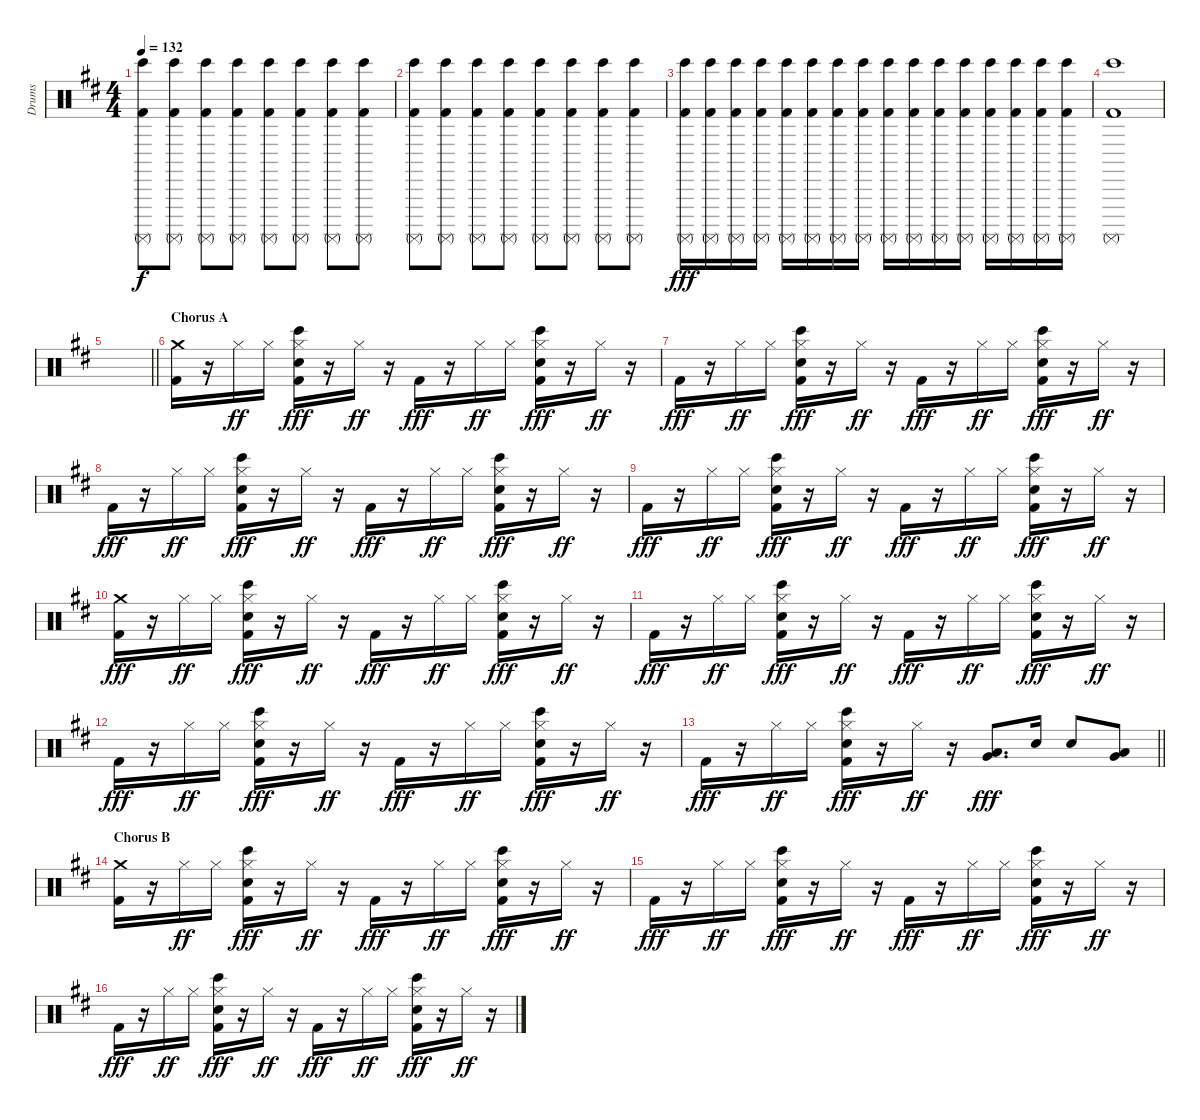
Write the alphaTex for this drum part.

\track ("Drums" "Drums") {instrument percussion}
\staff {score}
\articulation defaults
\ts (4 4)
\tempo 132
\clef neutral
\ks d
("Bongo High (hit)" "Surdo (mute)" "Kick (hit) 2").8{dy f} ("Bongo High (hit)" "Surdo (mute)" "Kick (hit) 2").8 ("Bongo High (hit)" "Surdo (mute)" "Kick (hit) 2").8 ("Bongo High (hit)" "Surdo (mute)" "Kick (hit) 2").8 ("Bongo High (hit)" "Surdo (mute)" "Kick (hit) 2").8 ("Bongo High (hit)" "Surdo (mute)" "Kick (hit) 2").8 ("Bongo High (hit)" "Surdo (mute)" "Kick (hit) 2").8 ("Bongo High (hit)" "Surdo (mute)" "Kick (hit) 2").8 |
("Bongo High (hit)" "Surdo (mute)" "Kick (hit) 2").8 ("Bongo High (hit)" "Surdo (mute)" "Kick (hit) 2").8 ("Bongo High (hit)" "Surdo (mute)" "Kick (hit) 2").8 ("Bongo High (hit)" "Surdo (mute)" "Kick (hit) 2").8 ("Bongo High (hit)" "Surdo (mute)" "Kick (hit) 2").8 ("Bongo High (hit)" "Surdo (mute)" "Kick (hit) 2").8 ("Bongo High (hit)" "Surdo (mute)" "Kick (hit) 2").8 ("Bongo High (hit)" "Surdo (mute)" "Kick (hit) 2").8 |
("Bongo High (hit)" "Surdo (mute)" "Kick (hit) 2").16{dy fff} ("Bongo High (hit)" "Surdo (mute)" "Kick (hit) 2").16 ("Bongo High (hit)" "Surdo (mute)" "Kick (hit) 2").16 ("Bongo High (hit)" "Surdo (mute)" "Kick (hit) 2").16 ("Bongo High (hit)" "Surdo (mute)" "Kick (hit) 2").16 ("Bongo High (hit)" "Surdo (mute)" "Kick (hit) 2").16 ("Bongo High (hit)" "Surdo (mute)" "Kick (hit) 2").16 ("Bongo High (hit)" "Surdo (mute)" "Kick (hit) 2").16 ("Bongo High (hit)" "Surdo (mute)" "Kick (hit) 2").16 ("Bongo High (hit)" "Surdo (mute)" "Kick (hit) 2").16 ("Bongo High (hit)" "Surdo (mute)" "Kick (hit) 2").16 ("Bongo High (hit)" "Surdo (mute)" "Kick (hit) 2").16 ("Bongo High (hit)" "Surdo (mute)" "Kick (hit) 2").16 ("Bongo High (hit)" "Surdo (mute)" "Kick (hit) 2").16 ("Bongo High (hit)" "Surdo (mute)" "Kick (hit) 2").16 ("Bongo High (hit)" "Surdo (mute)" "Kick (hit) 2").16 |
("Bongo High (hit)" "Surdo (mute)" "Kick (hit) 2").1 |
\barLineRight lightlight
|
\section ("" "Chorus A")
("Crash medium (hit)" "Kick (hit) 2").16 r.16 "Hi-Hat (closed)".16{dy ff} "Hi-Hat (closed)".16 ("Hi-Hat (closed)" "Electric Snare (hit)" "Bongo High (hit)" "Kick (hit) 2").16{dy fff} r.16 "Hi-Hat (closed)".16{dy ff} r.16 "Kick (hit) 2".16{dy fff} r.16 "Hi-Hat (closed)".16{dy ff} "Hi-Hat (closed)".16 ("Hi-Hat (closed)" "Electric Snare (hit)" "Bongo High (hit)" "Kick (hit) 2").16{dy fff} r.16 "Hi-Hat (closed)".16{dy ff} r.16 |
"Kick (hit) 2".16{dy fff} r.16 "Hi-Hat (closed)".16{dy ff} "Hi-Hat (closed)".16 ("Hi-Hat (closed)" "Electric Snare (hit)" "Bongo High (hit)" "Kick (hit) 2").16{dy fff} r.16 "Hi-Hat (closed)".16{dy ff} r.16 "Kick (hit) 2".16{dy fff} r.16 "Hi-Hat (closed)".16{dy ff} "Hi-Hat (closed)".16 ("Hi-Hat (closed)" "Electric Snare (hit)" "Bongo High (hit)" "Kick (hit) 2").16{dy fff} r.16 "Hi-Hat (closed)".16{dy ff} r.16 |
"Kick (hit) 2".16{dy fff} r.16 "Hi-Hat (closed)".16{dy ff} "Hi-Hat (closed)".16 ("Hi-Hat (closed)" "Electric Snare (hit)" "Bongo High (hit)" "Kick (hit) 2").16{dy fff} r.16 "Hi-Hat (closed)".16{dy ff} r.16 "Kick (hit) 2".16{dy fff} r.16 "Hi-Hat (closed)".16{dy ff} "Hi-Hat (closed)".16 ("Hi-Hat (closed)" "Electric Snare (hit)" "Bongo High (hit)" "Kick (hit) 2").16{dy fff} r.16 "Hi-Hat (closed)".16{dy ff} r.16 |
"Kick (hit) 2".16{dy fff} r.16 "Hi-Hat (closed)".16{dy ff} "Hi-Hat (closed)".16 ("Hi-Hat (closed)" "Electric Snare (hit)" "Bongo High (hit)" "Kick (hit) 2").16{dy fff} r.16 "Hi-Hat (closed)".16{dy ff} r.16 "Kick (hit) 2".16{dy fff} r.16 "Hi-Hat (closed)".16{dy ff} "Hi-Hat (closed)".16 ("Hi-Hat (closed)" "Electric Snare (hit)" "Bongo High (hit)" "Kick (hit) 2").16{dy fff} r.16 "Hi-Hat (closed)".16{dy ff} r.16 |
("Crash medium (hit)" "Kick (hit) 2").16{dy fff} r.16 "Hi-Hat (closed)".16{dy ff} "Hi-Hat (closed)".16 ("Hi-Hat (closed)" "Electric Snare (hit)" "Bongo High (hit)" "Kick (hit) 2").16{dy fff} r.16 "Hi-Hat (closed)".16{dy ff} r.16 "Kick (hit) 2".16{dy fff} r.16 "Hi-Hat (closed)".16{dy ff} "Hi-Hat (closed)".16 ("Hi-Hat (closed)" "Electric Snare (hit)" "Bongo High (hit)" "Kick (hit) 2").16{dy fff} r.16 "Hi-Hat (closed)".16{dy ff} r.16 |
"Kick (hit) 2".16{dy fff} r.16 "Hi-Hat (closed)".16{dy ff} "Hi-Hat (closed)".16 ("Hi-Hat (closed)" "Electric Snare (hit)" "Bongo High (hit)" "Kick (hit) 2").16{dy fff} r.16 "Hi-Hat (closed)".16{dy ff} r.16 "Kick (hit) 2".16{dy fff} r.16 "Hi-Hat (closed)".16{dy ff} "Hi-Hat (closed)".16 ("Hi-Hat (closed)" "Electric Snare (hit)" "Bongo High (hit)" "Kick (hit) 2").16{dy fff} r.16 "Hi-Hat (closed)".16{dy ff} r.16 |
"Kick (hit) 2".16{dy fff} r.16 "Hi-Hat (closed)".16{dy ff} "Hi-Hat (closed)".16 ("Hi-Hat (closed)" "Electric Snare (hit)" "Bongo High (hit)" "Kick (hit) 2").16{dy fff} r.16 "Hi-Hat (closed)".16{dy ff} r.16 "Kick (hit) 2".16{dy fff} r.16 "Hi-Hat (closed)".16{dy ff} "Hi-Hat (closed)".16 ("Hi-Hat (closed)" "Electric Snare (hit)" "Bongo High (hit)" "Kick (hit) 2").16{dy fff} r.16 "Hi-Hat (closed)".16{dy ff} r.16 |
\barLineRight lightlight "Kick (hit) 2".16{dy fff}
r.16 "Hi-Hat (closed)".16{dy ff} "Hi-Hat (closed)".16 ("Hi-Hat (closed)" "Electric Snare (hit)" "Bongo High (hit)" "Kick (hit) 2").16{dy fff} r.16 "Hi-Hat (closed)".16{dy ff} r.16 ("Very Low Tom (hit)" "Low Floor Tom (hit)").8{d dy fff} "Electric Snare (hit)".16 "Electric Snare (hit)".8 ("Very Low Tom (hit)" "Low Floor Tom (hit)").8 |
\section ("" "Chorus B")
("Crash medium (hit)" "Kick (hit) 2").16 r.16 "Hi-Hat (closed)".16{dy ff} "Hi-Hat (closed)".16 ("Hi-Hat (closed)" "Electric Snare (hit)" "Bongo High (hit)" "Kick (hit) 2").16{dy fff} r.16 "Hi-Hat (closed)".16{dy ff} r.16 "Kick (hit) 2".16{dy fff} r.16 "Hi-Hat (closed)".16{dy ff} "Hi-Hat (closed)".16 ("Hi-Hat (closed)" "Electric Snare (hit)" "Bongo High (hit)" "Kick (hit) 2").16{dy fff} r.16 "Hi-Hat (closed)".16{dy ff} r.16 |
"Kick (hit) 2".16{dy fff} r.16 "Hi-Hat (closed)".16{dy ff} "Hi-Hat (closed)".16 ("Hi-Hat (closed)" "Electric Snare (hit)" "Bongo High (hit)" "Kick (hit) 2").16{dy fff} r.16 "Hi-Hat (closed)".16{dy ff} r.16 "Kick (hit) 2".16{dy fff} r.16 "Hi-Hat (closed)".16{dy ff} "Hi-Hat (closed)".16 ("Hi-Hat (closed)" "Electric Snare (hit)" "Bongo High (hit)" "Kick (hit) 2").16{dy fff} r.16 "Hi-Hat (closed)".16{dy ff} r.16 |
"Kick (hit) 2".16{dy fff} r.16 "Hi-Hat (closed)".16{dy ff} "Hi-Hat (closed)".16 ("Hi-Hat (closed)" "Electric Snare (hit)" "Bongo High (hit)" "Kick (hit) 2").16{dy fff} r.16 "Hi-Hat (closed)".16{dy ff} r.16 "Kick (hit) 2".16{dy fff} r.16 "Hi-Hat (closed)".16{dy ff} "Hi-Hat (closed)".16 ("Hi-Hat (closed)" "Electric Snare (hit)" "Bongo High (hit)" "Kick (hit) 2").16{dy fff} r.16 "Hi-Hat (closed)".16{dy ff} r.16
